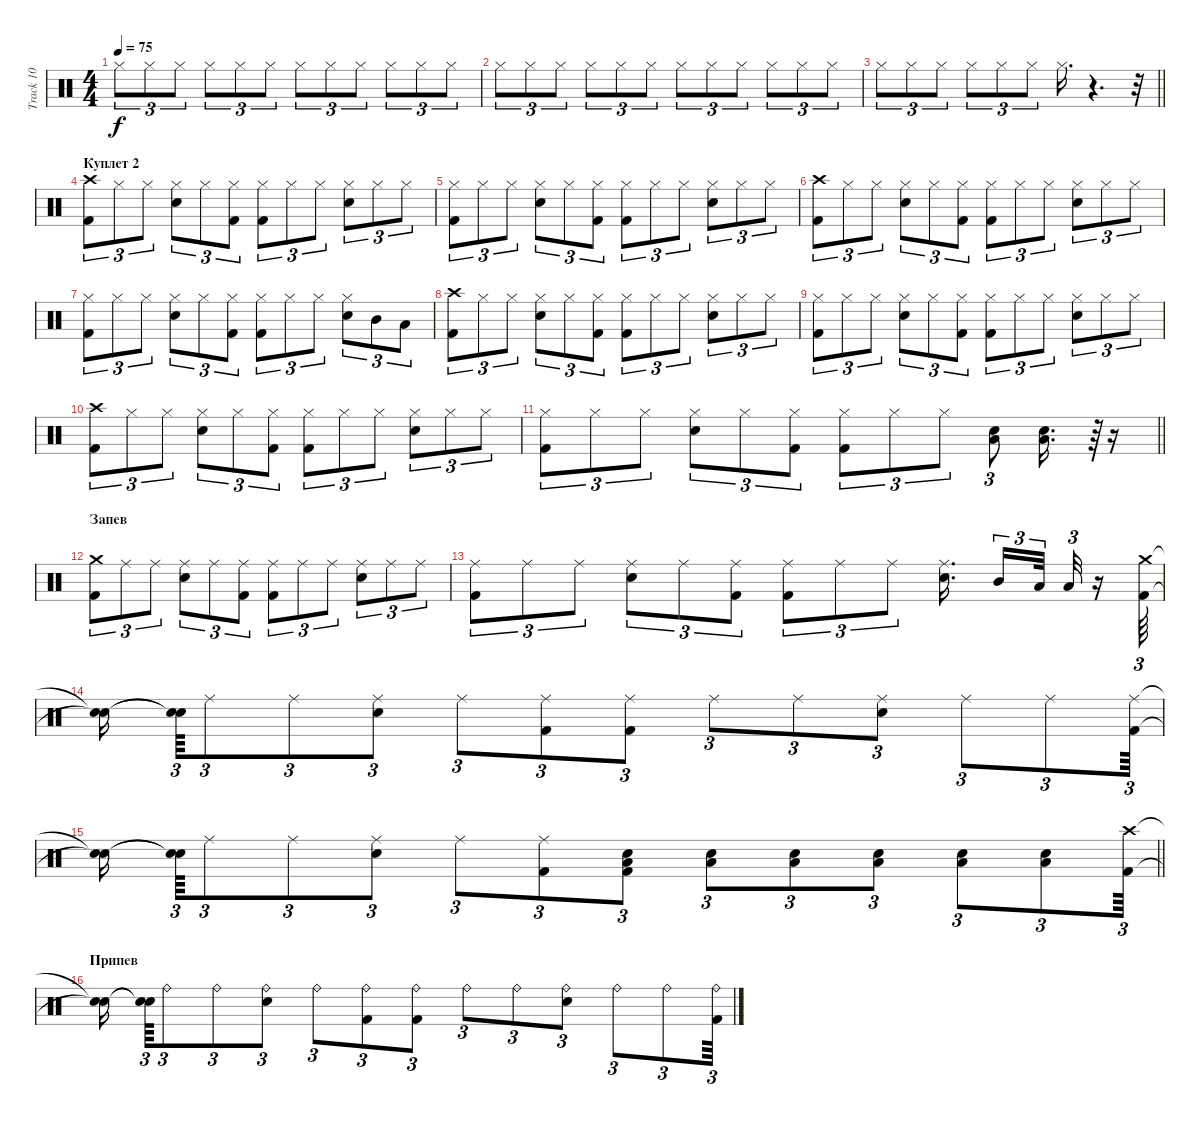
\track ("Track 10" "Track 10") {instrument percussion}
\staff {score}
\articulation defaults
\ts (4 4)
\tempo 75
\clef neutral
\ks c "Hi-Hat (closed)".8{tu (3 2) dy f} "Hi-Hat (closed)".8{tu (3 2)} "Hi-Hat (closed)".8{tu (3 2)} "Hi-Hat (closed)".8{tu (3 2)} "Hi-Hat (closed)".8{tu (3 2)} "Hi-Hat (closed)".8{tu (3 2)} "Hi-Hat (closed)".8{tu (3 2)} "Hi-Hat (closed)".8{tu (3 2)} "Hi-Hat (closed)".8{tu (3 2)} "Hi-Hat (closed)".8{tu (3 2)} "Hi-Hat (closed)".8{tu (3 2)} "Hi-Hat (closed)".8{tu (3 2)}
|
"Hi-Hat (closed)".8{tu (3 2)} "Hi-Hat (closed)".8{tu (3 2)} "Hi-Hat (closed)".8{tu (3 2)} "Hi-Hat (closed)".8{tu (3 2)} "Hi-Hat (closed)".8{tu (3 2)} "Hi-Hat (closed)".8{tu (3 2)} "Hi-Hat (closed)".8{tu (3 2)} "Hi-Hat (closed)".8{tu (3 2)} "Hi-Hat (closed)".8{tu (3 2)} "Hi-Hat (closed)".8{tu (3 2)} "Hi-Hat (closed)".8{tu (3 2)} "Hi-Hat (closed)".8{tu (3 2)} |
\barLineRight lightlight "Hi-Hat (closed)".8{tu (3 2)} "Hi-Hat (closed)".8{tu (3 2)} "Hi-Hat (closed)".8{tu (3 2)} "Hi-Hat (closed)".8{tu (3 2)} "Hi-Hat (closed)".8{tu (3 2)} "Hi-Hat (closed)".8{tu (3 2)} "Hi-Hat (closed)".16{d}
r.4{d} r.32 |
\section ("" "Куплет 2")
("Kick (hit) 2" "Crash high (hit)").8{tu (3 2)} "Hi-Hat (closed)".8{tu (3 2)} "Hi-Hat (closed)".8{tu (3 2)} ("Snare (hit) 2" "Hi-Hat (closed)").8{tu (3 2)} "Hi-Hat (closed)".8{tu (3 2)} ("Hi-Hat (closed)" "Kick (hit) 2").8{tu (3 2)} ("Kick (hit) 2" "Hi-Hat (closed)").8{tu (3 2)} "Hi-Hat (closed)".8{tu (3 2)} "Hi-Hat (closed)".8{tu (3 2)} ("Snare (hit) 2" "Hi-Hat (closed)").8{tu (3 2)} "Hi-Hat (closed)".8{tu (3 2)} "Hi-Hat (closed)".8{tu (3 2)} |
("Kick (hit) 2" "Hi-Hat (closed)").8{tu (3 2)} "Hi-Hat (closed)".8{tu (3 2)} "Hi-Hat (closed)".8{tu (3 2)} ("Hi-Hat (closed)" "Snare (hit) 2").8{tu (3 2)} "Hi-Hat (closed)".8{tu (3 2)} ("Hi-Hat (closed)" "Kick (hit) 2").8{tu (3 2)} ("Hi-Hat (closed)" "Kick (hit) 2").8{tu (3 2)} "Hi-Hat (closed)".8{tu (3 2)} "Hi-Hat (closed)".8{tu (3 2)} ("Hi-Hat (closed)" "Snare (hit) 2").8{tu (3 2)} "Hi-Hat (closed)".8{tu (3 2)} "Hi-Hat (closed)".8{tu (3 2)} |
("Crash high (hit)" "Kick (hit) 2").8{tu (3 2)} "Hi-Hat (closed)".8{tu (3 2)} "Hi-Hat (closed)".8{tu (3 2)} ("Snare (hit) 2" "Hi-Hat (closed)").8{tu (3 2)} "Hi-Hat (closed)".8{tu (3 2)} ("Hi-Hat (closed)" "Kick (hit) 2").8{tu (3 2)} ("Kick (hit) 2" "Hi-Hat (closed)").8{tu (3 2)} "Hi-Hat (closed)".8{tu (3 2)} "Hi-Hat (closed)".8{tu (3 2)} ("Snare (hit) 2" "Hi-Hat (closed)").8{tu (3 2)} "Hi-Hat (closed)".8{tu (3 2)} "Hi-Hat (closed)".8{tu (3 2)} |
("Hi-Hat (closed)" "Kick (hit) 2").8{tu (3 2)} "Hi-Hat (closed)".8{tu (3 2)} "Hi-Hat (closed)".8{tu (3 2)} ("Hi-Hat (closed)" "Snare (hit) 2").8{tu (3 2)} "Hi-Hat (closed)".8{tu (3 2)} ("Kick (hit) 2" "Hi-Hat (closed)").8{tu (3 2)} ("Hi-Hat (closed)" "Kick (hit) 2").8{tu (3 2)} "Hi-Hat (closed)".8{tu (3 2)} "Hi-Hat (closed)".8{tu (3 2)} ("Hi-Hat (closed)" "Snare (hit) 2").8{tu (3 2)} "Mid Tom (hit)".8{tu (3 2)} "Low Tom (hit)".8{tu (3 2)} |
("Kick (hit) 2" "Crash high (hit)").8{tu (3 2)} "Hi-Hat (closed)".8{tu (3 2)} "Hi-Hat (closed)".8{tu (3 2)} ("Hi-Hat (closed)" "Snare (hit) 2").8{tu (3 2)} "Hi-Hat (closed)".8{tu (3 2)} ("Kick (hit) 2" "Hi-Hat (closed)").8{tu (3 2)} ("Hi-Hat (closed)" "Kick (hit) 2").8{tu (3 2)} "Hi-Hat (closed)".8{tu (3 2)} "Hi-Hat (closed)".8{tu (3 2)} ("Hi-Hat (closed)" "Snare (hit) 2").8{tu (3 2)} "Hi-Hat (closed)".8{tu (3 2)} "Hi-Hat (closed)".8{tu (3 2)} |
("Kick (hit) 2" "Hi-Hat (closed)").8{tu (3 2)} "Hi-Hat (closed)".8{tu (3 2)} "Hi-Hat (closed)".8{tu (3 2)} ("Hi-Hat (closed)" "Snare (hit) 2").8{tu (3 2)} "Hi-Hat (closed)".8{tu (3 2)} ("Hi-Hat (closed)" "Kick (hit) 2").8{tu (3 2)} ("Hi-Hat (closed)" "Kick (hit) 2").8{tu (3 2)} "Hi-Hat (closed)".8{tu (3 2)} "Hi-Hat (closed)".8{tu (3 2)} ("Snare (hit) 2" "Hi-Hat (closed)").8{tu (3 2)} "Hi-Hat (closed)".8{tu (3 2)} "Hi-Hat (closed)".8{tu (3 2)} |
("Crash high (hit)" "Kick (hit) 2").8{tu (3 2)} "Hi-Hat (closed)".8{tu (3 2)} "Hi-Hat (closed)".8{tu (3 2)} ("Snare (hit) 2" "Hi-Hat (closed)").8{tu (3 2)} "Hi-Hat (closed)".8{tu (3 2)} ("Kick (hit) 2" "Hi-Hat (closed)").8{tu (3 2)} ("Kick (hit) 2" "Hi-Hat (closed)").8{tu (3 2)} "Hi-Hat (closed)".8{tu (3 2)} "Hi-Hat (closed)".8{tu (3 2)} ("Snare (hit) 2" "Hi-Hat (closed)").8{tu (3 2)} "Hi-Hat (closed)".8{tu (3 2)} "Hi-Hat (closed)".8{tu (3 2)} |
\barLineRight lightlight
("Hi-Hat (closed)" "Kick (hit) 2").8{tu (3 2)} "Hi-Hat (closed)".8{tu (3 2)} "Hi-Hat (closed)".8{tu (3 2)} ("Hi-Hat (closed)" "Snare (hit) 2").8{tu (3 2)} "Hi-Hat (closed)".8{tu (3 2)} ("Hi-Hat (closed)" "Kick (hit) 2").8{tu (3 2)} ("Kick (hit) 2" "Hi-Hat (closed)").8{tu (3 2)} "Hi-Hat (closed)".8{tu (3 2)} "Hi-Hat (closed)".8{tu (3 2)} ("Low Floor Tom (hit)" "Snare (hit) 2").8{tu (3 2)} ("Low Floor Tom (hit)" "Snare (hit) 2").16{d} r.64{tu (3 2)} r.16 |
\section ("" "Запев")
("Crash medium (hit)" "Kick (hit) 2").8{tu (3 2)} "Ride (middle)".8{tu (3 2)} "Ride (middle)".8{tu (3 2)} ("Ride (middle)" "Snare (hit) 2").8{tu (3 2)} "Ride (middle)".8{tu (3 2)} ("Ride (middle)" "Kick (hit) 2").8{tu (3 2)} ("Ride (middle)" "Kick (hit) 2").8{tu (3 2)} "Ride (middle)".8{tu (3 2)} "Ride (middle)".8{tu (3 2)} ("Ride (middle)" "Snare (hit) 2").8{tu (3 2)} "Ride (middle)".8{tu (3 2)} "Ride (middle)".8{tu (3 2)} |
("Ride (middle)" "Kick (hit) 2").8{tu (3 2)} "Ride (middle)".8{tu (3 2)} "Ride (middle)".8{tu (3 2)} ("Ride (middle)" "Snare (hit) 2").8{tu (3 2)} "Ride (middle)".8{tu (3 2)} ("Ride (middle)" "Kick (hit) 2").8{tu (3 2)} ("Ride (middle)" "Kick (hit) 2").8{tu (3 2)} "Ride (middle)".8{tu (3 2)} "Ride (middle)".8{tu (3 2)} ("Ride (middle)" "Snare (hit) 2").16{d beam splitsecondary} "Mid Tom (hit)".16{tu (3 2)} "Low Tom (hit)".32{tu (3 2)} "Low Tom (hit)".32{tu (3 2)} r.16 ("Crash medium (hit)" "Kick (hit) 2").64{tu (3 2)} |
("Snare (hit)"{t} "Snare (hit)"{t}).16{beam splitsecondary} ("Snare (hit)"{t} "Snare (hit)"{t}).64{tu (3 2)} "Ride (middle)".8{tu (3 2)} "Ride (middle)".8{tu (3 2)} ("Ride (middle)" "Snare (hit) 2").8{tu (3 2)} "Ride (middle)".8{tu (3 2)} ("Ride (middle)" "Kick (hit) 2").8{tu (3 2)} ("Ride (middle)" "Kick (hit) 2").8{tu (3 2)} "Ride (middle)".8{tu (3 2)} "Ride (middle)".8{tu (3 2)} ("Ride (middle)" "Snare (hit) 2").8{tu (3 2)} "Ride (middle)".8{tu (3 2)} "Ride (middle)".8{tu (3 2)} ("Ride (middle)" "Kick (hit) 2").64{tu (3 2)} |
\barLineRight lightlight
("Snare (hit)"{t} "Snare (hit)"{t}).16{beam splitsecondary} ("Snare (hit)"{t} "Snare (hit)"{t}).64{tu (3 2)} "Ride (middle)".8{tu (3 2)} "Ride (middle)".8{tu (3 2)} ("Ride (middle)" "Snare (hit) 2").8{tu (3 2)} "Ride (middle)".8{tu (3 2)} ("Ride (middle)" "Kick (hit) 2").8{tu (3 2)} ("Kick (hit) 2" "Snare (hit) 2" "Low Floor Tom (hit)").8{tu (3 2)} ("Snare (hit) 2" "Low Floor Tom (hit)").8{tu (3 2)} ("Snare (hit) 2" "Low Floor Tom (hit)").8{tu (3 2)} ("Snare (hit) 2" "Low Floor Tom (hit)").8{tu (3 2)} ("Snare (hit) 2" "Low Floor Tom (hit)").8{tu (3 2)} ("Snare (hit) 2" "Low Floor Tom (hit)").8{tu (3 2)} ("Kick (hit) 2" "Crash high (hit)").64{tu (3 2)} |
\section ("" "Припев")
("Snare (hit)"{t} "Snare (hit)"{t}).16{beam splitsecondary} ("Snare (hit)"{t} "Snare (hit)"{t}).64{tu (3 2)} "Ride (bell)".8{tu (3 2)} "Ride (bell)".8{tu (3 2)} ("Snare (hit) 2" "Ride (bell)").8{tu (3 2)} "Ride (bell)".8{tu (3 2)} ("Kick (hit) 2" "Ride (bell)").8{tu (3 2)} ("Kick (hit) 2" "Ride (bell)").8{tu (3 2)} "Ride (bell)".8{tu (3 2)} "Ride (bell)".8{tu (3 2)} ("Snare (hit) 2" "Ride (bell)").8{tu (3 2)} "Ride (bell)".8{tu (3 2)} "Ride (bell)".8{tu (3 2)} ("Kick (hit) 2" "Ride (bell)").64{tu (3 2)}
